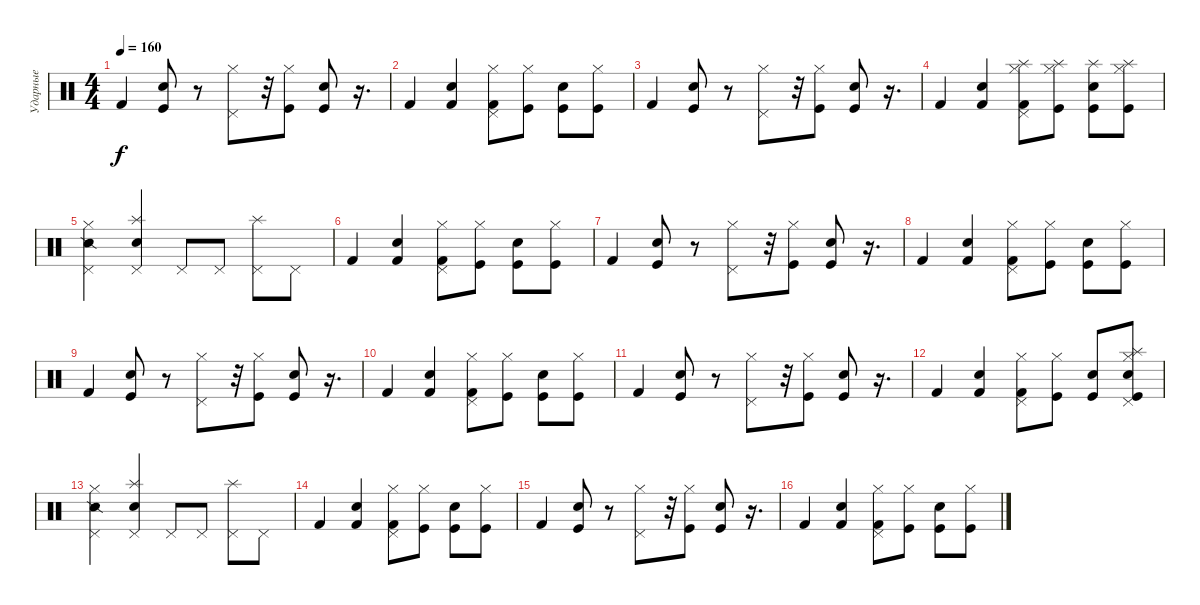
\track ("Ударные" "Ударные") {instrument percussion}
\staff {score}
\articulation defaults
\ts (4 4)
\tempo 160
\clef neutral
\ks c "Kick (hit) 2".4{dy f}
("Kick (hit)" "Snare (hit) 2").8 r.8 ("Hi-Hat (closed)" "Pedal Hi-Hat (hit)").8 r.32 ("Hi-Hat (closed)" "Kick (hit)").8 ("Kick (hit)" "Snare (hit) 2").8 r.16{d} |
"Kick (hit) 2".4 ("Kick (hit) 2" "Snare (hit) 2").4 ("Kick (hit) 2" "Pedal Hi-Hat (hit)" "Hi-Hat (closed)").8 ("Hi-Hat (closed)" "Kick (hit)").8 ("Kick (hit)" "Snare (hit) 2").8 ("Hi-Hat (closed)" "Kick (hit)").8 |
"Kick (hit) 2".4 ("Kick (hit)" "Snare (hit) 2").8 r.8 ("Hi-Hat (closed)" "Pedal Hi-Hat (hit)").8 r.32 ("Hi-Hat (closed)" "Kick (hit)").8 ("Kick (hit)" "Snare (hit) 2").8 r.16{d} |
"Kick (hit) 2".4 ("Kick (hit) 2" "Snare (hit) 2").4 ("Kick (hit) 2" "Pedal Hi-Hat (hit)" "Hi-Hat (closed)" "Splash (hit)").8 ("Hi-Hat (closed)" "Kick (hit)" "Splash (hit)").8 ("Kick (hit)" "Snare (hit) 2" "Splash (hit)").8 ("Hi-Hat (closed)" "Kick (hit)" "Splash (hit)").8 |
("Snare (side stick) 2" "Hi-Hat (closed)" "Pedal Hi-Hat (hit)").4 ("Electric Snare (hit)" "Pedal Hi-Hat (hit)" "Splash (hit)").4 "Pedal Hi-Hat (hit)".8 "Pedal Hi-Hat (hit)".8 ("Pedal Hi-Hat (hit)" "Splash (hit)").8 "Pedal Hi-Hat (hit)".8 |
"Kick (hit) 2".4 ("Kick (hit) 2" "Snare (hit) 2").4 ("Kick (hit) 2" "Pedal Hi-Hat (hit)" "Hi-Hat (closed)").8 ("Hi-Hat (closed)" "Kick (hit)").8 ("Kick (hit)" "Snare (hit) 2").8 ("Hi-Hat (closed)" "Kick (hit)").8 |
"Kick (hit) 2".4 ("Kick (hit)" "Snare (hit) 2").8 r.8 ("Hi-Hat (closed)" "Pedal Hi-Hat (hit)").8 r.32 ("Hi-Hat (closed)" "Kick (hit)").8 ("Kick (hit)" "Snare (hit) 2").8 r.16{d} |
"Kick (hit) 2".4 ("Kick (hit) 2" "Snare (hit) 2").4 ("Kick (hit) 2" "Pedal Hi-Hat (hit)" "Hi-Hat (closed)").8 ("Hi-Hat (closed)" "Kick (hit)").8 ("Kick (hit)" "Snare (hit) 2").8 ("Hi-Hat (closed)" "Kick (hit)").8 |
"Kick (hit) 2".4 ("Kick (hit)" "Snare (hit) 2").8 r.8 ("Hi-Hat (closed)" "Pedal Hi-Hat (hit)").8 r.32 ("Hi-Hat (closed)" "Kick (hit)").8 ("Kick (hit)" "Snare (hit) 2").8 r.16{d} |
"Kick (hit) 2".4 ("Kick (hit) 2" "Snare (hit) 2").4 ("Kick (hit) 2" "Pedal Hi-Hat (hit)" "Hi-Hat (closed)").8 ("Hi-Hat (closed)" "Kick (hit)").8 ("Kick (hit)" "Snare (hit) 2").8 ("Hi-Hat (closed)" "Kick (hit)").8 |
"Kick (hit) 2".4 ("Kick (hit)" "Snare (hit) 2").8 r.8 ("Hi-Hat (closed)" "Pedal Hi-Hat (hit)").8 r.32 ("Hi-Hat (closed)" "Kick (hit)").8 ("Kick (hit)" "Snare (hit) 2").8 r.16{d} |
"Kick (hit) 2".4 ("Kick (hit) 2" "Snare (hit) 2").4 ("Kick (hit) 2" "Pedal Hi-Hat (hit)" "Hi-Hat (closed)").8 ("Hi-Hat (closed)" "Kick (hit)").8 ("Kick (hit)" "Snare (hit) 2").8 ("Hi-Hat (closed)" "Kick (hit)" "Electric Snare (hit)" "Pedal Hi-Hat (hit)" "Splash (hit)").8 |
("Snare (side stick) 2" "Hi-Hat (closed)" "Pedal Hi-Hat (hit)").4 ("Electric Snare (hit)" "Pedal Hi-Hat (hit)" "Splash (hit)").4 "Pedal Hi-Hat (hit)".8 "Pedal Hi-Hat (hit)".8 ("Pedal Hi-Hat (hit)" "Splash (hit)").8 "Pedal Hi-Hat (hit)".8 |
"Kick (hit) 2".4 ("Kick (hit) 2" "Snare (hit) 2").4 ("Kick (hit) 2" "Pedal Hi-Hat (hit)" "Hi-Hat (closed)").8 ("Hi-Hat (closed)" "Kick (hit)").8 ("Kick (hit)" "Snare (hit) 2").8 ("Hi-Hat (closed)" "Kick (hit)").8 |
"Kick (hit) 2".4 ("Kick (hit)" "Snare (hit) 2").8 r.8 ("Hi-Hat (closed)" "Pedal Hi-Hat (hit)").8 r.32 ("Hi-Hat (closed)" "Kick (hit)").8 ("Kick (hit)" "Snare (hit) 2").8 r.16{d} |
"Kick (hit) 2".4 ("Kick (hit) 2" "Snare (hit) 2").4 ("Kick (hit) 2" "Pedal Hi-Hat (hit)" "Hi-Hat (closed)").8 ("Hi-Hat (closed)" "Kick (hit)").8 ("Kick (hit)" "Snare (hit) 2").8 ("Hi-Hat (closed)" "Kick (hit)").8
